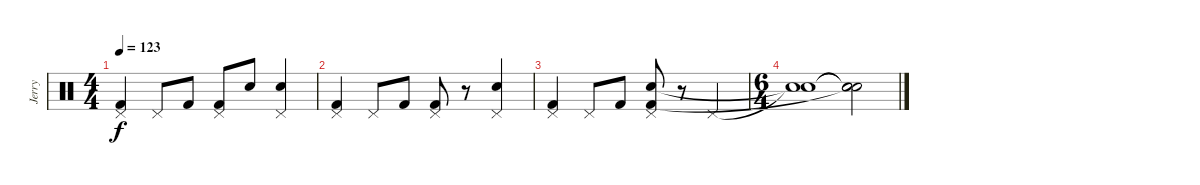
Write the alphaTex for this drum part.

\track ("Jerry" "Jerry") {instrument percussion}
\staff {score}
\articulation defaults
\ts (4 4)
\tempo 123
\clef neutral
\ks c
("Pedal Hi-Hat (hit)" "Kick (hit) 2").4{dy f} "Pedal Hi-Hat (hit)".8 "Kick (hit) 2".8 ("Pedal Hi-Hat (hit)" "Kick (hit) 2").8 "Snare (hit) 2".8 ("Pedal Hi-Hat (hit)" "Snare (hit) 2").4 |
("Pedal Hi-Hat (hit)" "Kick (hit) 2").4 "Pedal Hi-Hat (hit)".8 "Kick (hit) 2".8 ("Pedal Hi-Hat (hit)" "Kick (hit) 2").8 r.8 ("Pedal Hi-Hat (hit)" "Snare (hit) 2").4 |
("Pedal Hi-Hat (hit)" "Kick (hit) 2").4 "Pedal Hi-Hat (hit)".8 "Kick (hit) 2".8 ("Pedal Hi-Hat (hit)" "Snare (hit) 2" "Kick (hit) 2").8 r.8 "Pedal Hi-Hat (hit)".4 |
\ts (6 4)
("Snare (hit)"{t} "Snare (hit)"{t}).1 ("Snare (hit)"{t} "Snare (hit)"{t} "Snare (hit)"{t}).2
